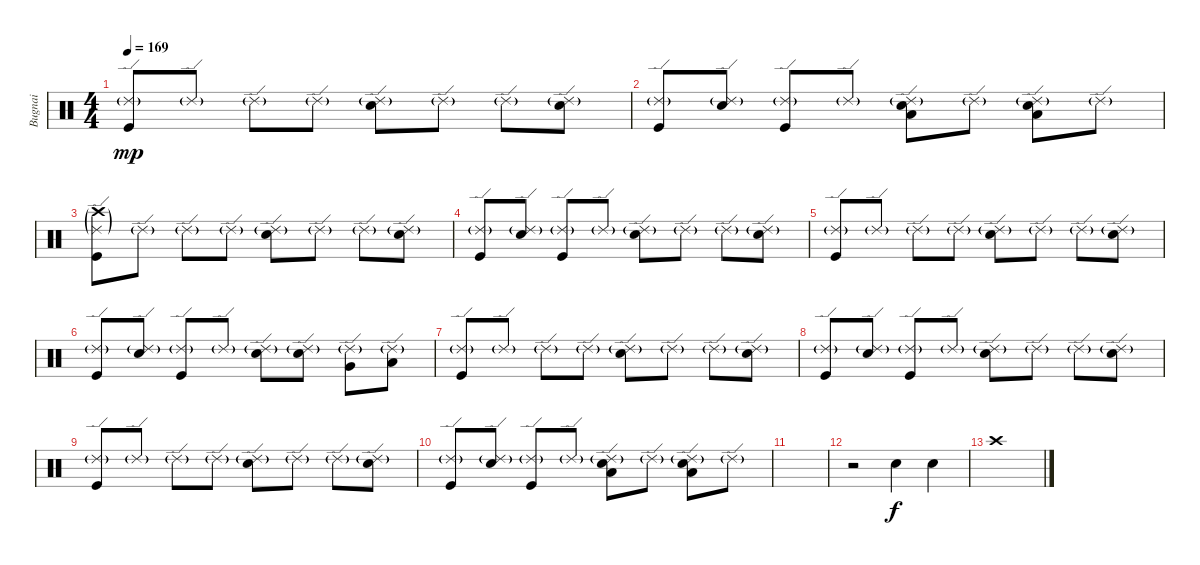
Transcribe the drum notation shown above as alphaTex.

\track ("Bugnai" "Bugnai") {instrument percussion}
\staff {score}
\articulation defaults
\ts (4 4)
\tempo 169
\clef neutral
\ks c
("Ride (edge) 2"{g} "Kick (hit)").8{dy mp} "Ride (edge) 2"{g}.8 "Ride (edge) 2"{g}.8 "Ride (edge) 2"{g}.8 ("Ride (edge) 2"{g} "Snare (hit) 2").8 "Ride (edge) 2"{g}.8 "Ride (edge) 2"{g}.8 ("Ride (edge) 2"{g} "Snare (hit) 2").8 |
("Ride (edge) 2"{g} "Kick (hit)").8 ("Ride (edge) 2"{g} "Snare (hit) 2").8 ("Ride (edge) 2"{g} "Kick (hit)").8 "Ride (edge) 2"{g}.8 ("Ride (edge) 2"{g} "Snare (hit) 2" "Low Tom (hit)").8 "Ride (edge) 2"{g}.8 ("Ride (edge) 2"{g} "Snare (hit) 2" "Low Tom (hit)").8 "Ride (edge) 2"{g}.8 |
("Ride (edge) 2"{g} "Crash high (hit)"{g} "Kick (hit)").8 "Ride (edge) 2"{g}.8 "Ride (edge) 2"{g}.8 "Ride (edge) 2"{g}.8 ("Ride (edge) 2"{g} "Snare (hit) 2").8 "Ride (edge) 2"{g}.8 "Ride (edge) 2"{g}.8 ("Ride (edge) 2"{g} "Snare (hit) 2").8 |
("Ride (edge) 2"{g} "Kick (hit)").8 ("Ride (edge) 2"{g} "Snare (hit) 2").8 ("Ride (edge) 2"{g} "Kick (hit)").8 "Ride (edge) 2"{g}.8 ("Ride (edge) 2"{g} "Snare (hit) 2").8 "Ride (edge) 2"{g}.8 "Ride (edge) 2"{g}.8 ("Ride (edge) 2"{g} "Snare (hit) 2").8 |
("Ride (edge) 2"{g} "Kick (hit)").8 "Ride (edge) 2"{g}.8 "Ride (edge) 2"{g}.8 "Ride (edge) 2"{g}.8 ("Ride (edge) 2"{g} "Snare (hit) 2").8 "Ride (edge) 2"{g}.8 "Ride (edge) 2"{g}.8 ("Ride (edge) 2"{g} "Snare (hit) 2").8 |
("Ride (edge) 2"{g} "Kick (hit)").8 ("Ride (edge) 2"{g} "Snare (hit) 2").8 ("Ride (edge) 2"{g} "Kick (hit)").8 "Ride (edge) 2"{g}.8 ("Ride (edge) 2"{g} "Snare (hit) 2").8 ("Ride (edge) 2"{g} "Snare (hit) 2").8 ("Ride (edge) 2"{g} "Very Low Tom (hit)").8 ("Ride (edge) 2"{g} "Low Floor Tom (hit)").8 |
("Ride (edge) 2"{g} "Kick (hit)").8 "Ride (edge) 2"{g}.8 "Ride (edge) 2"{g}.8 "Ride (edge) 2"{g}.8 ("Ride (edge) 2"{g} "Snare (hit) 2").8 "Ride (edge) 2"{g}.8 "Ride (edge) 2"{g}.8 ("Ride (edge) 2"{g} "Snare (hit) 2").8 |
("Ride (edge) 2"{g} "Kick (hit)").8 ("Ride (edge) 2"{g} "Snare (hit) 2").8 ("Ride (edge) 2"{g} "Kick (hit)").8 "Ride (edge) 2"{g}.8 ("Ride (edge) 2"{g} "Snare (hit) 2").8 "Ride (edge) 2"{g}.8 "Ride (edge) 2"{g}.8 ("Ride (edge) 2"{g} "Snare (hit) 2").8 |
("Ride (edge) 2"{g} "Kick (hit)").8 "Ride (edge) 2"{g}.8 "Ride (edge) 2"{g}.8 "Ride (edge) 2"{g}.8 ("Ride (edge) 2"{g} "Snare (hit) 2").8 "Ride (edge) 2"{g}.8 "Ride (edge) 2"{g}.8 ("Ride (edge) 2"{g} "Snare (hit) 2").8 |
("Ride (edge) 2"{g} "Kick (hit)").8 ("Ride (edge) 2"{g} "Snare (hit) 2").8 ("Ride (edge) 2"{g} "Kick (hit)").8 "Ride (edge) 2"{g}.8 ("Ride (edge) 2"{g} "Snare (hit) 2" "Low Tom (hit)").8 "Ride (edge) 2"{g}.8 ("Ride (edge) 2"{g} "Snare (hit) 2" "Low Tom (hit)").8 "Ride (edge) 2"{g}.8 |
|
r.2 "Snare (hit) 2".4{dy f} "Snare (hit) 2".4 |
"Crash high (hit)".1
